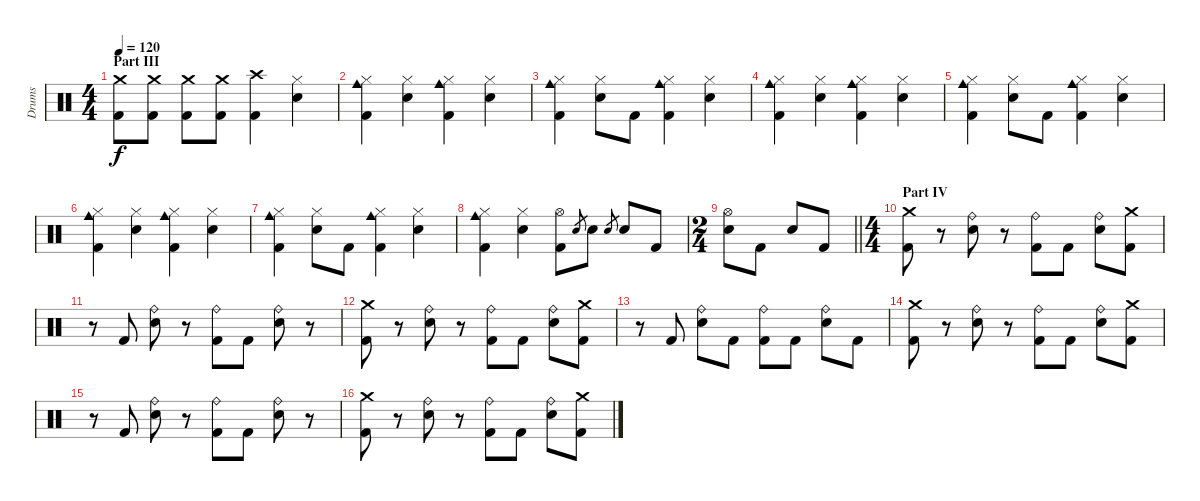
\track ("Drums" "Drums") {instrument percussion}
\staff {score}
\articulation defaults
\ts (4 4)
\section ("" "Part III")
\tempo 120
\clef neutral
\ks c
("Crash medium (hit)" "Kick (hit) 2").8{dy f} ("Crash medium (hit)" "Kick (hit) 2").8 ("Crash medium (hit)" "Kick (hit) 2").8 ("Crash medium (hit)" "Kick (hit) 2").8 ("Crash high (hit)" "Kick (hit) 2").4 ("Hi-Hat (closed)" "Electric Snare (hit)").4 |
("Cowbell medium (hit)" "Hi-Hat (closed)" "Kick (hit) 2").4 ("Hi-Hat (closed)" "Electric Snare (hit)").4 ("Cowbell medium (hit)" "Hi-Hat (closed)" "Kick (hit) 2").4 ("Hi-Hat (closed)" "Electric Snare (hit)").4 |
("Cowbell medium (hit)" "Hi-Hat (closed)" "Kick (hit) 2").4 ("Hi-Hat (closed)" "Electric Snare (hit)").8 "Kick (hit) 2".8 ("Cowbell medium (hit)" "Hi-Hat (closed)" "Kick (hit) 2").4 ("Hi-Hat (closed)" "Electric Snare (hit)").4 |
("Cowbell medium (hit)" "Hi-Hat (closed)" "Kick (hit) 2").4 ("Hi-Hat (closed)" "Electric Snare (hit)").4 ("Cowbell medium (hit)" "Hi-Hat (closed)" "Kick (hit) 2").4 ("Hi-Hat (closed)" "Electric Snare (hit)").4 |
("Cowbell medium (hit)" "Hi-Hat (closed)" "Kick (hit) 2").4 ("Hi-Hat (closed)" "Electric Snare (hit)").8 "Kick (hit) 2".8 ("Cowbell medium (hit)" "Hi-Hat (closed)" "Kick (hit) 2").4 ("Hi-Hat (closed)" "Electric Snare (hit)").4 |
("Cowbell medium (hit)" "Hi-Hat (closed)" "Kick (hit) 2").4 ("Hi-Hat (closed)" "Electric Snare (hit)").4 ("Cowbell medium (hit)" "Hi-Hat (closed)" "Kick (hit) 2").4 ("Hi-Hat (closed)" "Electric Snare (hit)").4 |
("Cowbell medium (hit)" "Hi-Hat (closed)" "Kick (hit) 2").4 ("Hi-Hat (closed)" "Electric Snare (hit)").8 "Kick (hit) 2".8 ("Cowbell medium (hit)" "Hi-Hat (closed)" "Kick (hit) 2").4 ("Hi-Hat (closed)" "Electric Snare (hit)").4 |
("Cowbell medium (hit)" "Hi-Hat (closed)" "Kick (hit) 2").4 ("Hi-Hat (closed)" "Electric Snare (hit)").4 ("Hi-Hat (open)" "Kick (hit) 2").8 "Electric Snare (hit)".8{gr} "Electric Snare (hit)".8 "Electric Snare (hit)".8{gr} "Electric Snare (hit)".8 "Kick (hit) 2".8 |
\ts (2 4)
\barLineRight lightlight
("Hi-Hat (open)" "Electric Snare (hit)").8 "Kick (hit) 2".8 "Electric Snare (hit)".8 "Kick (hit) 2".8 |
\ts (4 4)
\section ("" "Part IV")
("Crash medium (hit)" "Kick (hit) 2").8 r.8 ("Ride (bell)" "Electric Snare (hit)").8 r.8 ("Ride (bell)" "Kick (hit) 2").8 "Kick (hit) 2".8 ("Ride (bell)" "Electric Snare (hit)").8 ("Crash medium (hit)" "Kick (hit) 2").8 |
r.8 "Kick (hit) 2".8 ("Ride (bell)" "Electric Snare (hit)").8 r.8 ("Ride (bell)" "Kick (hit) 2").8 "Kick (hit) 2".8 ("Ride (bell)" "Electric Snare (hit)").8 r.8 |
("Crash medium (hit)" "Kick (hit) 2").8 r.8 ("Ride (bell)" "Electric Snare (hit)").8 r.8 ("Ride (bell)" "Kick (hit) 2").8 "Kick (hit) 2".8 ("Ride (bell)" "Electric Snare (hit)").8 ("Crash medium (hit)" "Kick (hit) 2").8 |
r.8 "Kick (hit) 2".8 ("Ride (bell)" "Electric Snare (hit)").8 "Kick (hit) 2".8 ("Ride (bell)" "Kick (hit) 2").8 "Kick (hit) 2".8 ("Ride (bell)" "Electric Snare (hit)").8 "Kick (hit) 2".8 |
("Crash medium (hit)" "Kick (hit) 2").8 r.8 ("Ride (bell)" "Electric Snare (hit)").8 r.8 ("Ride (bell)" "Kick (hit) 2").8 "Kick (hit) 2".8 ("Ride (bell)" "Electric Snare (hit)").8 ("Crash medium (hit)" "Kick (hit) 2").8 |
r.8 "Kick (hit) 2".8 ("Ride (bell)" "Electric Snare (hit)").8 r.8 ("Ride (bell)" "Kick (hit) 2").8 "Kick (hit) 2".8 ("Ride (bell)" "Electric Snare (hit)").8 r.8 |
("Crash medium (hit)" "Kick (hit) 2").8 r.8 ("Ride (bell)" "Electric Snare (hit)").8 r.8 ("Ride (bell)" "Kick (hit) 2").8 "Kick (hit) 2".8 ("Ride (bell)" "Electric Snare (hit)").8 ("Crash medium (hit)" "Kick (hit) 2").8
